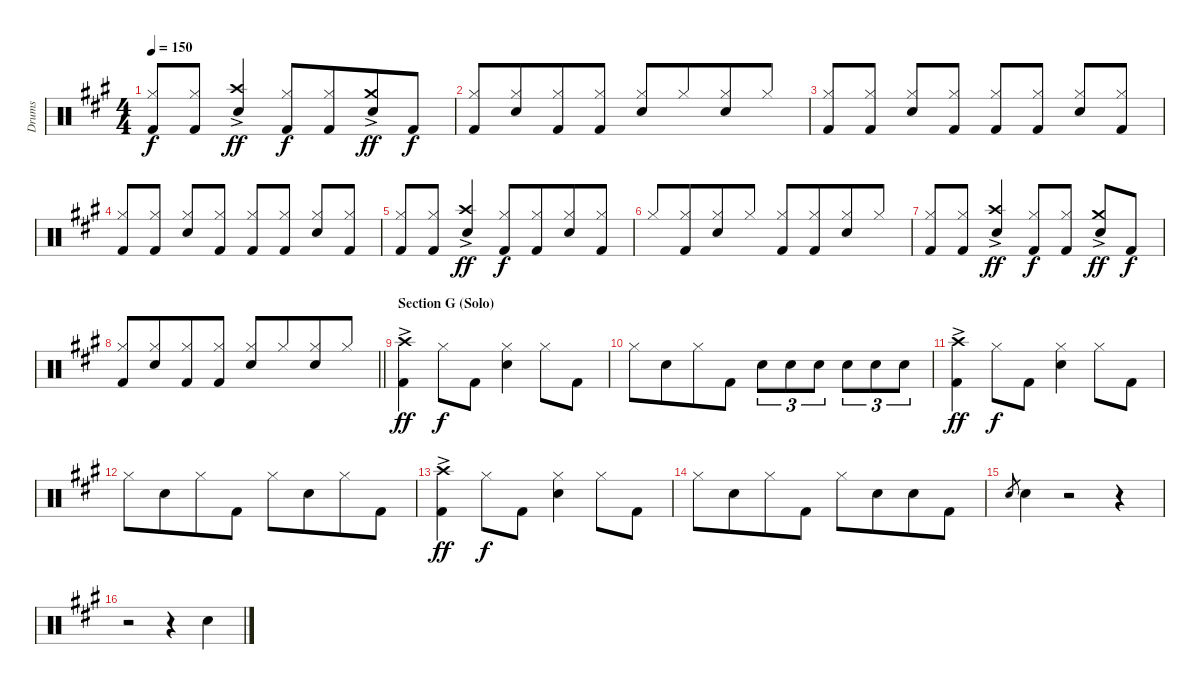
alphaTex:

\track ("Drums" "Drums") {instrument percussion}
\staff {score}
\articulation defaults
\ts (4 4)
\tempo 150
\clef neutral
\ks a
("Hi-Hat (closed)" "Kick (hit) 2").8{dy f beam Up} ("Hi-Hat (closed)" "Kick (hit) 2").8{beam Up} ("Crash high (hit)"{ac} "Snare (hit) 2").4{dy ff beam Up} ("Hi-Hat (closed)" "Kick (hit) 2").8{dy f beam Up} ("Hi-Hat (closed)" "Kick (hit) 2").8{beam Up beam merge} ("Crash medium (hit)"{ac} "Snare (hit) 2").8{dy ff beam Up} "Kick (hit) 2".8{dy f beam Up} |
("Hi-Hat (closed)" "Kick (hit) 2").8{beam Up} ("Hi-Hat (closed)" "Snare (hit) 2").8{beam Up beam merge} ("Hi-Hat (closed)" "Kick (hit) 2").8{beam Up} ("Hi-Hat (closed)" "Kick (hit) 2").8{beam Up} ("Hi-Hat (closed)" "Snare (hit) 2").8{beam Up} "Hi-Hat (closed)".8{beam Up beam merge} ("Hi-Hat (closed)" "Snare (hit) 2").8{beam Up} "Hi-Hat (closed)".8{beam Up} |
("Hi-Hat (closed)" "Kick (hit) 2").8{beam Up} ("Hi-Hat (closed)" "Kick (hit) 2").8{beam Up} ("Hi-Hat (closed)" "Snare (hit) 2").8{beam Up} ("Hi-Hat (closed)" "Kick (hit) 2").8{beam Up} ("Hi-Hat (closed)" "Kick (hit) 2").8{beam Up} ("Hi-Hat (closed)" "Kick (hit) 2").8{beam Up} ("Hi-Hat (closed)" "Snare (hit) 2").8{beam Up} ("Hi-Hat (closed)" "Kick (hit) 2").8{beam Up} |
("Hi-Hat (closed)" "Kick (hit) 2").8{beam Up} ("Hi-Hat (closed)" "Kick (hit) 2").8{beam Up} ("Hi-Hat (closed)" "Snare (hit) 2").8{beam Up} ("Hi-Hat (closed)" "Kick (hit) 2").8{beam Up} ("Hi-Hat (closed)" "Kick (hit) 2").8{beam Up} ("Hi-Hat (closed)" "Kick (hit) 2").8{beam Up} ("Hi-Hat (closed)" "Snare (hit) 2").8{beam Up} ("Hi-Hat (closed)" "Kick (hit) 2").8{beam Up} |
("Hi-Hat (closed)" "Kick (hit) 2").8{beam Up} ("Hi-Hat (closed)" "Kick (hit) 2").8{beam Up} ("Crash high (hit)"{ac} "Snare (hit) 2").4{dy ff beam Up} ("Hi-Hat (closed)" "Kick (hit) 2").8{dy f beam Up} ("Hi-Hat (closed)" "Kick (hit) 2").8{beam Up beam merge} ("Hi-Hat (closed)" "Snare (hit) 2").8{beam Up} ("Hi-Hat (closed)" "Kick (hit) 2").8{beam Up} |
"Hi-Hat (closed)".8{beam Up} ("Hi-Hat (closed)" "Kick (hit) 2").8{beam Up beam merge} ("Hi-Hat (closed)" "Snare (hit) 2").8{beam Up} "Hi-Hat (closed)".8{beam Up} ("Hi-Hat (closed)" "Kick (hit) 2").8{beam Up} ("Hi-Hat (closed)" "Kick (hit) 2").8{beam Up beam merge} ("Hi-Hat (closed)" "Snare (hit) 2").8{beam Up} "Hi-Hat (closed)".8{beam Up} |
("Hi-Hat (closed)" "Kick (hit) 2").8{beam Up} ("Hi-Hat (closed)" "Kick (hit) 2").8{beam Up} ("Crash high (hit)"{ac} "Snare (hit) 2").4{dy ff beam Up} ("Hi-Hat (closed)" "Kick (hit) 2").8{dy f beam Up} ("Hi-Hat (closed)" "Kick (hit) 2").8{beam Up} ("Crash medium (hit)"{ac} "Snare (hit) 2").8{dy ff beam Up} "Kick (hit) 2".8{dy f beam Up} |
\barLineRight lightlight
("Hi-Hat (closed)" "Kick (hit) 2").8{beam Up} ("Hi-Hat (closed)" "Snare (hit) 2").8{beam Up beam merge} ("Hi-Hat (closed)" "Kick (hit) 2").8{beam Up} ("Hi-Hat (closed)" "Kick (hit) 2").8{beam Up} ("Hi-Hat (closed)" "Snare (hit) 2").8{beam Up} "Hi-Hat (closed)".8{beam Up beam merge} ("Hi-Hat (closed)" "Snare (hit) 2").8{beam Up} "Hi-Hat (closed)".8{beam Up} |
\section ("" "Section G (Solo)")
("Crash high (hit)"{ac} "Kick (hit) 2").4{dy ff} "Hi-Hat (closed)".8{dy f} "Kick (hit) 2".8 ("Hi-Hat (closed)" "Snare (hit) 2").4 "Hi-Hat (closed)".8 "Kick (hit) 2".8 |
"Hi-Hat (closed)".8 "Snare (hit) 2".8{beam merge} "Hi-Hat (closed)".8 "Kick (hit) 2".8 "Snare (hit) 2".8{tu (3 2)} "Snare (hit) 2".8{tu (3 2)} "Snare (hit) 2".8{tu (3 2)} "Snare (hit) 2".8{tu (3 2)} "Snare (hit) 2".8{tu (3 2)} "Snare (hit) 2".8{tu (3 2)} |
("Crash high (hit)"{ac} "Kick (hit) 2").4{dy ff} "Hi-Hat (closed)".8{dy f} "Kick (hit) 2".8 ("Hi-Hat (closed)" "Snare (hit) 2").4 "Hi-Hat (closed)".8 "Kick (hit) 2".8 |
"Hi-Hat (closed)".8 "Snare (hit) 2".8{beam merge} "Hi-Hat (closed)".8 "Kick (hit) 2".8 "Hi-Hat (closed)".8 "Snare (hit) 2".8{beam merge} "Hi-Hat (closed)".8 "Kick (hit) 2".8 |
("Crash high (hit)"{ac} "Kick (hit) 2").4{dy ff} "Hi-Hat (closed)".8{dy f} "Kick (hit) 2".8 ("Hi-Hat (closed)" "Snare (hit) 2").4 "Hi-Hat (closed)".8 "Kick (hit) 2".8 |
"Hi-Hat (closed)".8 "Snare (hit) 2".8{beam merge} "Hi-Hat (closed)".8 "Kick (hit) 2".8 "Hi-Hat (closed)".8 "Snare (hit) 2".8{beam merge} "Snare (hit) 2".8 "Kick (hit) 2".8 |
"Snare (hit) 2".8{gr} "Snare (hit) 2".4 r.2 r.4 |
r.2 r.4 "Snare (hit) 2".4
